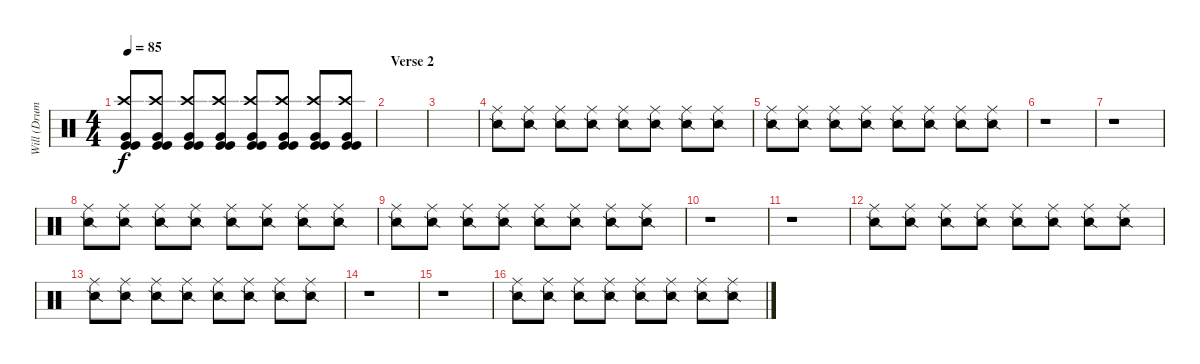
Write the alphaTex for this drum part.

\track ("Will (Drums)" "Will (Drum") {instrument percussion}
\staff {score}
\articulation defaults
\ts (4 4)
\tempo 85
\clef neutral
\ks c
("Kick (hit)" "Crash high (hit)" "Very Low Tom (hit)" "Kick (hit)").8{dy f} ("Kick (hit)" "Crash high (hit)" "Very Low Tom (hit)" "Kick (hit)").8 ("Kick (hit)" "Crash high (hit)" "Very Low Tom (hit)" "Kick (hit)").8 ("Kick (hit)" "Crash high (hit)" "Very Low Tom (hit)" "Kick (hit)").8 ("Kick (hit)" "Crash high (hit)" "Very Low Tom (hit)" "Kick (hit)").8 ("Kick (hit)" "Crash high (hit)" "Very Low Tom (hit)" "Kick (hit)").8 ("Kick (hit)" "Crash high (hit)" "Very Low Tom (hit)" "Kick (hit)").8 ("Kick (hit)" "Crash high (hit)" "Very Low Tom (hit)" "Kick (hit)").8 |
\section ("" "Verse 2")
|
|
("Ride (middle)" "Snare (side stick) 2").8 ("Ride (middle)" "Snare (side stick) 2").8 ("Ride (middle)" "Snare (side stick) 2").8 ("Ride (middle)" "Snare (side stick) 2").8 ("Ride (middle)" "Snare (side stick) 2").8 ("Ride (middle)" "Snare (side stick) 2").8 ("Ride (middle)" "Snare (side stick) 2").8 ("Ride (middle)" "Snare (side stick) 2").8 |
("Ride (middle)" "Snare (side stick) 2").8 ("Ride (middle)" "Snare (side stick) 2").8 ("Ride (middle)" "Snare (side stick) 2").8 ("Ride (middle)" "Snare (side stick) 2").8 ("Ride (middle)" "Snare (side stick) 2").8 ("Ride (middle)" "Snare (side stick) 2").8 ("Ride (middle)" "Snare (side stick) 2").8 ("Ride (middle)" "Snare (side stick) 2").8 |
r.1 |
r.1 |
("Ride (middle)" "Snare (side stick) 2").8 ("Ride (middle)" "Snare (side stick) 2").8 ("Ride (middle)" "Snare (side stick) 2").8 ("Ride (middle)" "Snare (side stick) 2").8 ("Ride (middle)" "Snare (side stick) 2").8 ("Ride (middle)" "Snare (side stick) 2").8 ("Ride (middle)" "Snare (side stick) 2").8 ("Ride (middle)" "Snare (side stick) 2").8 |
("Ride (middle)" "Snare (side stick) 2").8 ("Ride (middle)" "Snare (side stick) 2").8 ("Ride (middle)" "Snare (side stick) 2").8 ("Ride (middle)" "Snare (side stick) 2").8 ("Ride (middle)" "Snare (side stick) 2").8 ("Ride (middle)" "Snare (side stick) 2").8 ("Ride (middle)" "Snare (side stick) 2").8 ("Ride (middle)" "Snare (side stick) 2").8 |
r.1 |
r.1 |
("Ride (middle)" "Snare (side stick) 2").8 ("Ride (middle)" "Snare (side stick) 2").8 ("Ride (middle)" "Snare (side stick) 2").8 ("Ride (middle)" "Snare (side stick) 2").8 ("Ride (middle)" "Snare (side stick) 2").8 ("Ride (middle)" "Snare (side stick) 2").8 ("Ride (middle)" "Snare (side stick) 2").8 ("Ride (middle)" "Snare (side stick) 2").8 |
("Ride (middle)" "Snare (side stick) 2").8 ("Ride (middle)" "Snare (side stick) 2").8 ("Ride (middle)" "Snare (side stick) 2").8 ("Ride (middle)" "Snare (side stick) 2").8 ("Ride (middle)" "Snare (side stick) 2").8 ("Ride (middle)" "Snare (side stick) 2").8 ("Ride (middle)" "Snare (side stick) 2").8 ("Ride (middle)" "Snare (side stick) 2").8 |
r.1 |
r.1 |
("Ride (middle)" "Snare (side stick) 2").8 ("Ride (middle)" "Snare (side stick) 2").8 ("Ride (middle)" "Snare (side stick) 2").8 ("Ride (middle)" "Snare (side stick) 2").8 ("Ride (middle)" "Snare (side stick) 2").8 ("Ride (middle)" "Snare (side stick) 2").8 ("Ride (middle)" "Snare (side stick) 2").8 ("Ride (middle)" "Snare (side stick) 2").8
